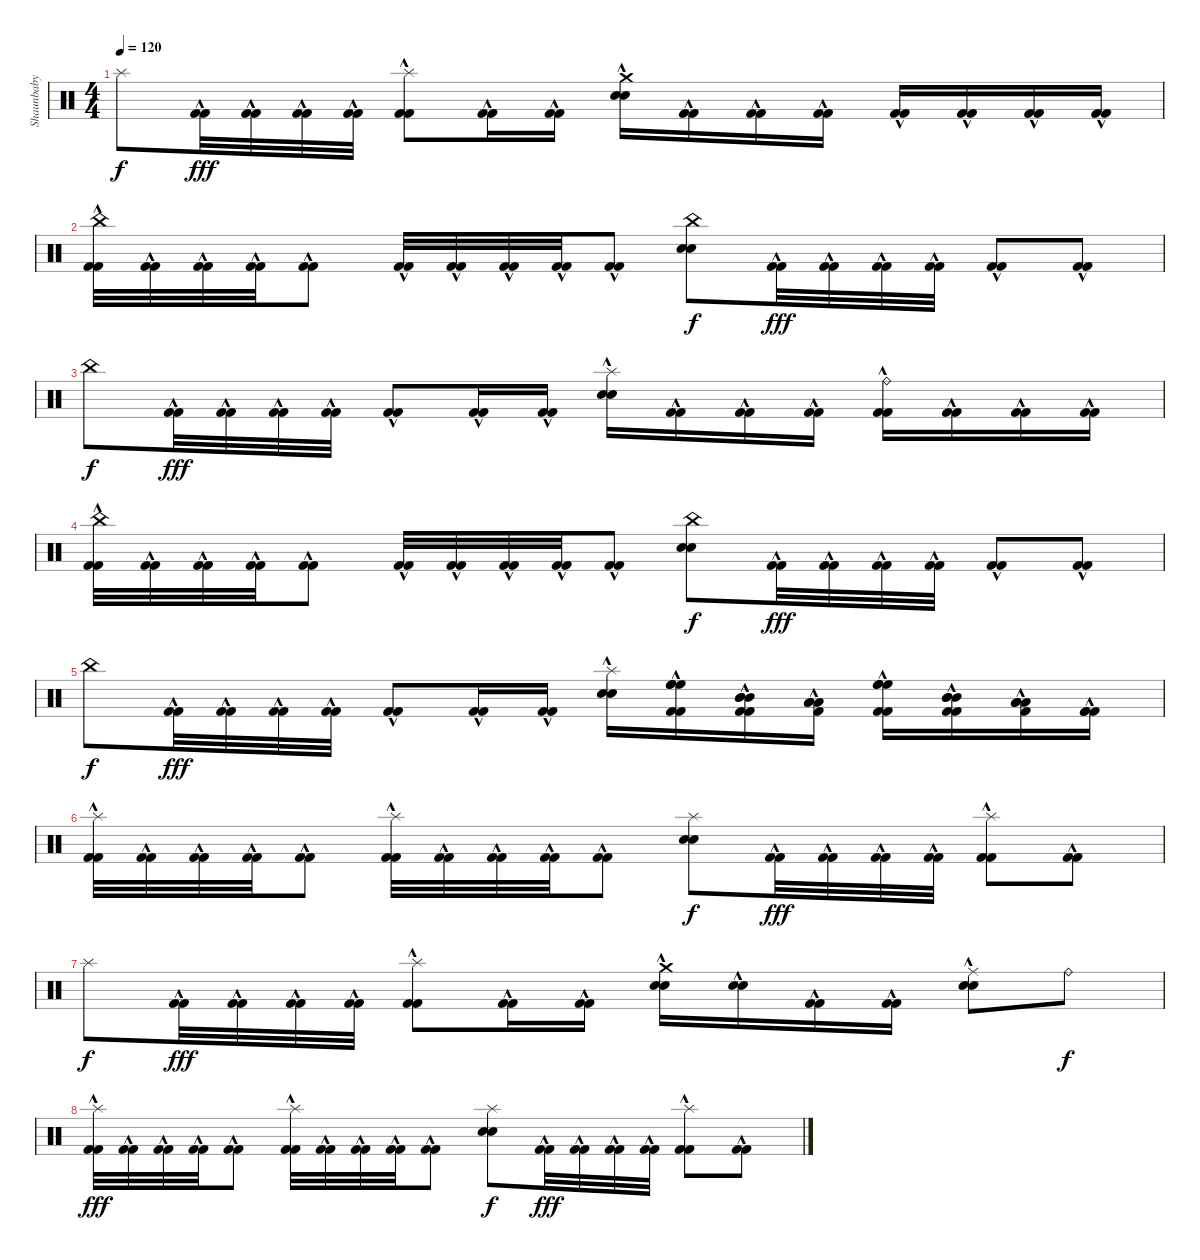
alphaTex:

\track ("Shaunbaby" "Shaunbaby") {instrument percussion}
\staff {score}
\articulation defaults
\ts (4 4)
\tempo 120
\clef neutral
\ks c "Splash (hit)".8{dy f}
("Kick (hit) 2"{hac} "Kick (hit) 2"{hac}).32{dy fff} ("Kick (hit) 2"{hac} "Kick (hit) 2"{hac}).32 ("Kick (hit) 2"{hac} "Kick (hit) 2"{hac}).32 ("Kick (hit) 2"{hac} "Kick (hit) 2"{hac}).32 ("Splash (hit)" "Kick (hit) 2"{hac} "Kick (hit) 2"{hac}).8 ("Kick (hit) 2"{hac} "Kick (hit) 2"{hac}).16 ("Kick (hit) 2"{hac} "Kick (hit) 2"{hac}).16 ("Crash medium (hit)" "Electric Snare (hit)"{hac} "Electric Snare (hit)"{hac}).16 ("Kick (hit) 2"{hac} "Kick (hit) 2"{hac}).16 ("Kick (hit) 2"{hac} "Kick (hit) 2"{hac}).16 ("Kick (hit) 2"{hac} "Kick (hit) 2"{hac}).16 ("Kick (hit) 2"{hac} "Kick (hit) 2"{hac}).16 ("Kick (hit) 2"{hac} "Kick (hit) 2"{hac}).16 ("Kick (hit) 2"{hac} "Kick (hit) 2"{hac}).16 ("Kick (hit) 2"{hac} "Kick (hit) 2"{hac}).16 |
("China (hit)" "Kick (hit) 2"{hac} "Kick (hit) 2"{hac}).32 ("Kick (hit) 2"{hac} "Kick (hit) 2"{hac}).32 ("Kick (hit) 2"{hac} "Kick (hit) 2"{hac}).32 ("Kick (hit) 2"{hac} "Kick (hit) 2"{hac}).32 ("Kick (hit) 2"{hac} "Kick (hit) 2"{hac}).8 ("Kick (hit) 2"{hac} "Kick (hit) 2"{hac}).32 ("Kick (hit) 2"{hac} "Kick (hit) 2"{hac}).32 ("Kick (hit) 2"{hac} "Kick (hit) 2"{hac}).32 ("Kick (hit) 2"{hac} "Kick (hit) 2"{hac}).32 ("Kick (hit) 2"{hac} "Kick (hit) 2"{hac}).8 ("China (hit)" "Electric Snare (hit)" "Electric Snare (hit)").8{dy f} ("Kick (hit) 2"{hac} "Kick (hit) 2"{hac}).32{dy fff} ("Kick (hit) 2"{hac} "Kick (hit) 2"{hac}).32 ("Kick (hit) 2"{hac} "Kick (hit) 2"{hac}).32 ("Kick (hit) 2"{hac} "Kick (hit) 2"{hac}).32 ("Kick (hit) 2"{hac} "Kick (hit) 2"{hac}).8 ("Kick (hit) 2"{hac} "Kick (hit) 2"{hac}).8 |
"China (hit)".8{dy f} ("Kick (hit) 2"{hac} "Kick (hit) 2"{hac}).32{dy fff} ("Kick (hit) 2"{hac} "Kick (hit) 2"{hac}).32 ("Kick (hit) 2"{hac} "Kick (hit) 2"{hac}).32 ("Kick (hit) 2"{hac} "Kick (hit) 2"{hac}).32 ("Kick (hit) 2"{hac} "Kick (hit) 2"{hac}).8 ("Kick (hit) 2"{hac} "Kick (hit) 2"{hac}).16 ("Kick (hit) 2"{hac} "Kick (hit) 2"{hac}).16 ("Splash (hit)" "Electric Snare (hit)"{hac} "Electric Snare (hit)"{hac}).16 ("Kick (hit) 2"{hac} "Kick (hit) 2"{hac}).16 ("Kick (hit) 2"{hac} "Kick (hit) 2"{hac}).16 ("Kick (hit) 2"{hac} "Kick (hit) 2"{hac}).16 ("Ride (bell)" "Kick (hit) 2"{hac} "Kick (hit) 2"{hac}).16 ("Kick (hit) 2"{hac} "Kick (hit) 2"{hac}).16 ("Kick (hit) 2"{hac} "Kick (hit) 2"{hac}).16 ("Kick (hit) 2"{hac} "Kick (hit) 2"{hac}).16 |
("China (hit)" "Kick (hit) 2"{hac} "Kick (hit) 2"{hac}).32 ("Kick (hit) 2"{hac} "Kick (hit) 2"{hac}).32 ("Kick (hit) 2"{hac} "Kick (hit) 2"{hac}).32 ("Kick (hit) 2"{hac} "Kick (hit) 2"{hac}).32 ("Kick (hit) 2"{hac} "Kick (hit) 2"{hac}).8 ("Kick (hit) 2"{hac} "Kick (hit) 2"{hac}).32 ("Kick (hit) 2"{hac} "Kick (hit) 2"{hac}).32 ("Kick (hit) 2"{hac} "Kick (hit) 2"{hac}).32 ("Kick (hit) 2"{hac} "Kick (hit) 2"{hac}).32 ("Kick (hit) 2"{hac} "Kick (hit) 2"{hac}).8 ("China (hit)" "Electric Snare (hit)" "Electric Snare (hit)").8{dy f} ("Kick (hit) 2"{hac} "Kick (hit) 2"{hac}).32{dy fff} ("Kick (hit) 2"{hac} "Kick (hit) 2"{hac}).32 ("Kick (hit) 2"{hac} "Kick (hit) 2"{hac}).32 ("Kick (hit) 2"{hac} "Kick (hit) 2"{hac}).32 ("Kick (hit) 2"{hac} "Kick (hit) 2"{hac}).8 ("Kick (hit) 2"{hac} "Kick (hit) 2"{hac}).8 |
"China (hit)".8{dy f} ("Kick (hit) 2"{hac} "Kick (hit) 2"{hac}).32{dy fff} ("Kick (hit) 2"{hac} "Kick (hit) 2"{hac}).32 ("Kick (hit) 2"{hac} "Kick (hit) 2"{hac}).32 ("Kick (hit) 2"{hac} "Kick (hit) 2"{hac}).32 ("Kick (hit) 2"{hac} "Kick (hit) 2"{hac}).8 ("Kick (hit) 2"{hac} "Kick (hit) 2"{hac}).16 ("Kick (hit) 2"{hac} "Kick (hit) 2"{hac}).16 ("Splash (hit)" "Electric Snare (hit)"{hac} "Electric Snare (hit)"{hac}).16 ("High Floor Tom (hit)"{hac} "High Floor Tom (hit)"{hac} "High Floor Tom (hit)"{hac} "Kick (hit) 2"{hac} "Kick (hit) 2"{hac}).16 ("Mid Tom (hit)"{hac} "Mid Tom (hit)"{hac} "Mid Tom (hit)"{hac} "Kick (hit) 2"{hac} "Kick (hit) 2"{hac}).16 ("Low Floor Tom (hit)"{hac} "Low Floor Tom (hit)"{hac} "Low Floor Tom (hit)"{hac} "Kick (hit) 2"{hac}).16 ("High Floor Tom (hit)"{hac} "High Floor Tom (hit)"{hac} "High Floor Tom (hit)"{hac} "Kick (hit) 2"{hac} "Kick (hit) 2"{hac}).16 ("Mid Tom (hit)"{hac} "Mid Tom (hit)"{hac} "Mid Tom (hit)"{hac} "Kick (hit) 2"{hac} "Kick (hit) 2"{hac}).16 ("Low Floor Tom (hit)"{hac} "Low Floor Tom (hit)"{hac} "Low Floor Tom (hit)"{hac} "Kick (hit) 2"{hac}).16 ("Kick (hit) 2"{hac} "Kick (hit) 2"{hac} "Kick (hit) 2"{hac}).16 |
("Splash (hit)" "Kick (hit) 2"{hac} "Kick (hit) 2"{hac}).32 ("Kick (hit) 2"{hac} "Kick (hit) 2"{hac}).32 ("Kick (hit) 2"{hac} "Kick (hit) 2"{hac}).32 ("Kick (hit) 2"{hac} "Kick (hit) 2"{hac}).32 ("Kick (hit) 2"{hac} "Kick (hit) 2"{hac}).8 ("Splash (hit)" "Kick (hit) 2"{hac} "Kick (hit) 2"{hac}).32 ("Kick (hit) 2"{hac} "Kick (hit) 2"{hac}).32 ("Kick (hit) 2"{hac} "Kick (hit) 2"{hac}).32 ("Kick (hit) 2"{hac} "Kick (hit) 2"{hac}).32 ("Kick (hit) 2"{hac} "Kick (hit) 2"{hac}).8 ("Splash (hit)" "Electric Snare (hit)" "Electric Snare (hit)").8{dy f} ("Kick (hit) 2"{hac} "Kick (hit) 2"{hac}).32{dy fff} ("Kick (hit) 2"{hac} "Kick (hit) 2"{hac}).32 ("Kick (hit) 2"{hac} "Kick (hit) 2"{hac}).32 ("Kick (hit) 2"{hac} "Kick (hit) 2"{hac}).32 ("Splash (hit)" "Kick (hit) 2"{hac} "Kick (hit) 2"{hac}).8 ("Kick (hit) 2"{hac} "Kick (hit) 2"{hac}).8 |
"Splash (hit)".8{dy f} ("Kick (hit) 2"{hac} "Kick (hit) 2"{hac}).32{dy fff} ("Kick (hit) 2"{hac} "Kick (hit) 2"{hac}).32 ("Kick (hit) 2"{hac} "Kick (hit) 2"{hac}).32 ("Kick (hit) 2"{hac} "Kick (hit) 2"{hac}).32 ("Splash (hit)" "Kick (hit) 2"{hac} "Kick (hit) 2"{hac}).8 ("Kick (hit) 2"{hac} "Kick (hit) 2"{hac}).16 ("Kick (hit) 2"{hac} "Kick (hit) 2"{hac}).16 ("Crash medium (hit)" "Electric Snare (hit)"{hac} "Electric Snare (hit)"{hac}).16 ("Electric Snare (hit)"{hac} "Electric Snare (hit)"{hac}).16 ("Kick (hit) 2"{hac} "Kick (hit) 2"{hac}).16 ("Kick (hit) 2"{hac} "Kick (hit) 2"{hac}).16 ("Ride (middle)" "Electric Snare (hit)"{hac} "Electric Snare (hit)"{hac}).8 "Ride (bell)".8{dy f} |
("Splash (hit)" "Kick (hit) 2"{hac} "Kick (hit) 2"{hac}).32{dy fff} ("Kick (hit) 2"{hac} "Kick (hit) 2"{hac}).32 ("Kick (hit) 2"{hac} "Kick (hit) 2"{hac}).32 ("Kick (hit) 2"{hac} "Kick (hit) 2"{hac}).32 ("Kick (hit) 2"{hac} "Kick (hit) 2"{hac}).8 ("Splash (hit)" "Kick (hit) 2"{hac} "Kick (hit) 2"{hac}).32 ("Kick (hit) 2"{hac} "Kick (hit) 2"{hac}).32 ("Kick (hit) 2"{hac} "Kick (hit) 2"{hac}).32 ("Kick (hit) 2"{hac} "Kick (hit) 2"{hac}).32 ("Kick (hit) 2"{hac} "Kick (hit) 2"{hac}).8 ("Splash (hit)" "Electric Snare (hit)" "Electric Snare (hit)").8{dy f} ("Kick (hit) 2"{hac} "Kick (hit) 2"{hac}).32{dy fff} ("Kick (hit) 2"{hac} "Kick (hit) 2"{hac}).32 ("Kick (hit) 2"{hac} "Kick (hit) 2"{hac}).32 ("Kick (hit) 2"{hac} "Kick (hit) 2"{hac}).32 ("Splash (hit)" "Kick (hit) 2"{hac} "Kick (hit) 2"{hac}).8 ("Kick (hit) 2"{hac} "Kick (hit) 2"{hac}).8
